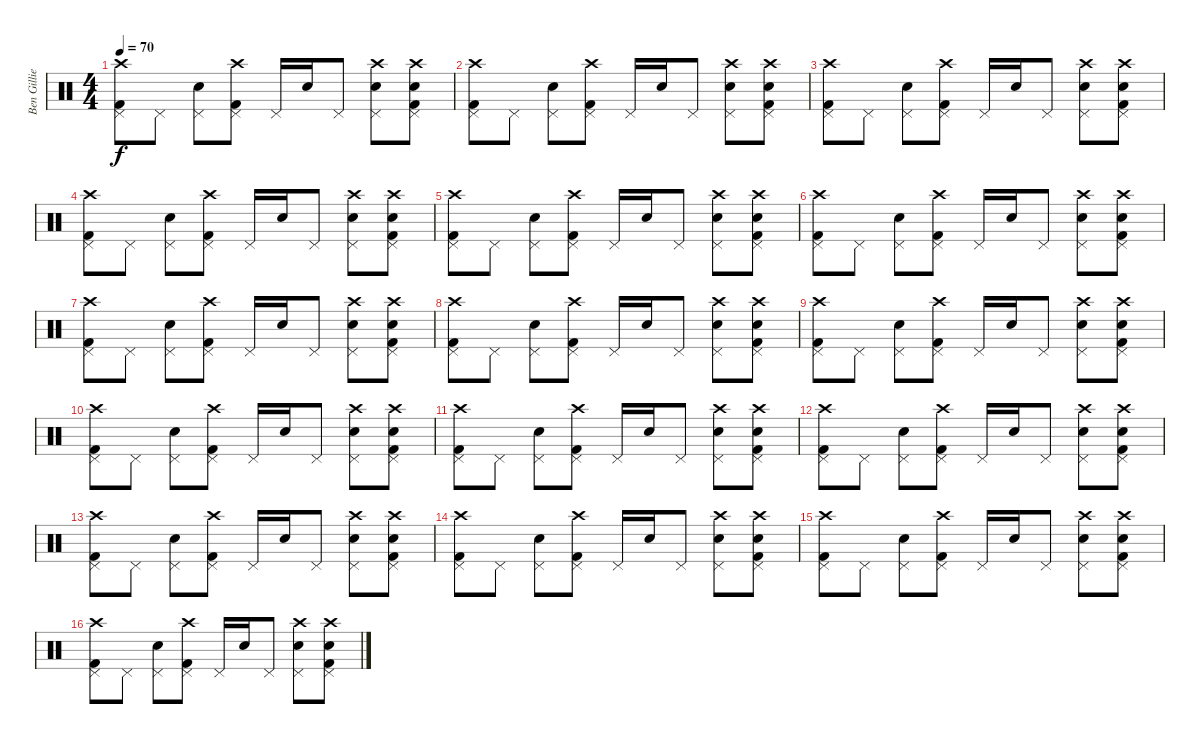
\track ("Ben Gillies" "Ben Gillie") {instrument percussion}
\staff {score}
\articulation defaults
\ts (4 4)
\tempo 70
\clef neutral
\ks c
("Crash high (hit)" "Pedal Hi-Hat (hit)" "Kick (hit) 2").8{dy f} "Pedal Hi-Hat (hit)".8 ("Pedal Hi-Hat (hit)" "Electric Snare (hit)").8 ("Crash high (hit)" "Pedal Hi-Hat (hit)" "Kick (hit) 2").8 "Pedal Hi-Hat (hit)".16 "Electric Snare (hit)".16 "Pedal Hi-Hat (hit)".8 ("Crash high (hit)" "Pedal Hi-Hat (hit)" "Electric Snare (hit)").8 ("Crash high (hit)" "Pedal Hi-Hat (hit)" "Electric Snare (hit)" "Kick (hit) 2").8 |
("Crash high (hit)" "Pedal Hi-Hat (hit)" "Kick (hit) 2").8 "Pedal Hi-Hat (hit)".8 ("Pedal Hi-Hat (hit)" "Electric Snare (hit)").8 ("Crash high (hit)" "Pedal Hi-Hat (hit)" "Kick (hit) 2").8 "Pedal Hi-Hat (hit)".16 "Electric Snare (hit)".16 "Pedal Hi-Hat (hit)".8 ("Crash high (hit)" "Pedal Hi-Hat (hit)" "Electric Snare (hit)").8 ("Crash high (hit)" "Pedal Hi-Hat (hit)" "Electric Snare (hit)" "Kick (hit) 2").8 |
("Crash high (hit)" "Pedal Hi-Hat (hit)" "Kick (hit) 2").8 "Pedal Hi-Hat (hit)".8 ("Pedal Hi-Hat (hit)" "Electric Snare (hit)").8 ("Crash high (hit)" "Pedal Hi-Hat (hit)" "Kick (hit) 2").8 "Pedal Hi-Hat (hit)".16 "Electric Snare (hit)".16 "Pedal Hi-Hat (hit)".8 ("Crash high (hit)" "Pedal Hi-Hat (hit)" "Electric Snare (hit)").8 ("Crash high (hit)" "Pedal Hi-Hat (hit)" "Electric Snare (hit)" "Kick (hit) 2").8 |
("Crash high (hit)" "Pedal Hi-Hat (hit)" "Kick (hit) 2").8 "Pedal Hi-Hat (hit)".8 ("Pedal Hi-Hat (hit)" "Electric Snare (hit)").8 ("Crash high (hit)" "Pedal Hi-Hat (hit)" "Kick (hit) 2").8 "Pedal Hi-Hat (hit)".16 "Electric Snare (hit)".16 "Pedal Hi-Hat (hit)".8 ("Crash high (hit)" "Pedal Hi-Hat (hit)" "Electric Snare (hit)").8 ("Crash high (hit)" "Pedal Hi-Hat (hit)" "Electric Snare (hit)" "Kick (hit) 2").8 |
("Crash high (hit)" "Pedal Hi-Hat (hit)" "Kick (hit) 2").8 "Pedal Hi-Hat (hit)".8 ("Pedal Hi-Hat (hit)" "Electric Snare (hit)").8 ("Crash high (hit)" "Pedal Hi-Hat (hit)" "Kick (hit) 2").8 "Pedal Hi-Hat (hit)".16 "Electric Snare (hit)".16 "Pedal Hi-Hat (hit)".8 ("Crash high (hit)" "Pedal Hi-Hat (hit)" "Electric Snare (hit)").8 ("Crash high (hit)" "Pedal Hi-Hat (hit)" "Electric Snare (hit)" "Kick (hit) 2").8 |
("Crash high (hit)" "Pedal Hi-Hat (hit)" "Kick (hit) 2").8 "Pedal Hi-Hat (hit)".8 ("Pedal Hi-Hat (hit)" "Electric Snare (hit)").8 ("Crash high (hit)" "Pedal Hi-Hat (hit)" "Kick (hit) 2").8 "Pedal Hi-Hat (hit)".16 "Electric Snare (hit)".16 "Pedal Hi-Hat (hit)".8 ("Crash high (hit)" "Pedal Hi-Hat (hit)" "Electric Snare (hit)").8 ("Crash high (hit)" "Pedal Hi-Hat (hit)" "Electric Snare (hit)" "Kick (hit) 2").8 |
("Crash high (hit)" "Pedal Hi-Hat (hit)" "Kick (hit) 2").8 "Pedal Hi-Hat (hit)".8 ("Pedal Hi-Hat (hit)" "Electric Snare (hit)").8 ("Crash high (hit)" "Pedal Hi-Hat (hit)" "Kick (hit) 2").8 "Pedal Hi-Hat (hit)".16 "Electric Snare (hit)".16 "Pedal Hi-Hat (hit)".8 ("Crash high (hit)" "Pedal Hi-Hat (hit)" "Electric Snare (hit)").8 ("Crash high (hit)" "Pedal Hi-Hat (hit)" "Electric Snare (hit)" "Kick (hit) 2").8 |
("Crash high (hit)" "Pedal Hi-Hat (hit)" "Kick (hit) 2").8 "Pedal Hi-Hat (hit)".8 ("Pedal Hi-Hat (hit)" "Electric Snare (hit)").8 ("Crash high (hit)" "Pedal Hi-Hat (hit)" "Kick (hit) 2").8 "Pedal Hi-Hat (hit)".16 "Electric Snare (hit)".16 "Pedal Hi-Hat (hit)".8 ("Crash high (hit)" "Pedal Hi-Hat (hit)" "Electric Snare (hit)").8 ("Crash high (hit)" "Pedal Hi-Hat (hit)" "Electric Snare (hit)" "Kick (hit) 2").8 |
("Crash high (hit)" "Pedal Hi-Hat (hit)" "Kick (hit) 2").8 "Pedal Hi-Hat (hit)".8 ("Pedal Hi-Hat (hit)" "Electric Snare (hit)").8 ("Crash high (hit)" "Pedal Hi-Hat (hit)" "Kick (hit) 2").8 "Pedal Hi-Hat (hit)".16 "Electric Snare (hit)".16 "Pedal Hi-Hat (hit)".8 ("Crash high (hit)" "Pedal Hi-Hat (hit)" "Electric Snare (hit)").8 ("Crash high (hit)" "Pedal Hi-Hat (hit)" "Electric Snare (hit)" "Kick (hit) 2").8 |
("Crash high (hit)" "Pedal Hi-Hat (hit)" "Kick (hit) 2").8 "Pedal Hi-Hat (hit)".8 ("Pedal Hi-Hat (hit)" "Electric Snare (hit)").8 ("Crash high (hit)" "Pedal Hi-Hat (hit)" "Kick (hit) 2").8 "Pedal Hi-Hat (hit)".16 "Electric Snare (hit)".16 "Pedal Hi-Hat (hit)".8 ("Crash high (hit)" "Pedal Hi-Hat (hit)" "Electric Snare (hit)").8 ("Crash high (hit)" "Pedal Hi-Hat (hit)" "Electric Snare (hit)" "Kick (hit) 2").8 |
("Crash high (hit)" "Pedal Hi-Hat (hit)" "Kick (hit) 2").8 "Pedal Hi-Hat (hit)".8 ("Pedal Hi-Hat (hit)" "Electric Snare (hit)").8 ("Crash high (hit)" "Pedal Hi-Hat (hit)" "Kick (hit) 2").8 "Pedal Hi-Hat (hit)".16 "Electric Snare (hit)".16 "Pedal Hi-Hat (hit)".8 ("Crash high (hit)" "Pedal Hi-Hat (hit)" "Electric Snare (hit)").8 ("Crash high (hit)" "Pedal Hi-Hat (hit)" "Electric Snare (hit)" "Kick (hit) 2").8 |
("Crash high (hit)" "Pedal Hi-Hat (hit)" "Kick (hit) 2").8 "Pedal Hi-Hat (hit)".8 ("Pedal Hi-Hat (hit)" "Electric Snare (hit)").8 ("Crash high (hit)" "Pedal Hi-Hat (hit)" "Kick (hit) 2").8 "Pedal Hi-Hat (hit)".16 "Electric Snare (hit)".16 "Pedal Hi-Hat (hit)".8 ("Crash high (hit)" "Pedal Hi-Hat (hit)" "Electric Snare (hit)").8 ("Crash high (hit)" "Pedal Hi-Hat (hit)" "Electric Snare (hit)" "Kick (hit) 2").8 |
("Crash high (hit)" "Pedal Hi-Hat (hit)" "Kick (hit) 2").8 "Pedal Hi-Hat (hit)".8 ("Pedal Hi-Hat (hit)" "Electric Snare (hit)").8 ("Crash high (hit)" "Pedal Hi-Hat (hit)" "Kick (hit) 2").8 "Pedal Hi-Hat (hit)".16 "Electric Snare (hit)".16 "Pedal Hi-Hat (hit)".8 ("Crash high (hit)" "Pedal Hi-Hat (hit)" "Electric Snare (hit)").8 ("Crash high (hit)" "Pedal Hi-Hat (hit)" "Electric Snare (hit)" "Kick (hit) 2").8 |
("Crash high (hit)" "Pedal Hi-Hat (hit)" "Kick (hit) 2").8 "Pedal Hi-Hat (hit)".8 ("Pedal Hi-Hat (hit)" "Electric Snare (hit)").8 ("Crash high (hit)" "Pedal Hi-Hat (hit)" "Kick (hit) 2").8 "Pedal Hi-Hat (hit)".16 "Electric Snare (hit)".16 "Pedal Hi-Hat (hit)".8 ("Crash high (hit)" "Pedal Hi-Hat (hit)" "Electric Snare (hit)").8 ("Crash high (hit)" "Pedal Hi-Hat (hit)" "Electric Snare (hit)" "Kick (hit) 2").8 |
("Crash high (hit)" "Pedal Hi-Hat (hit)" "Kick (hit) 2").8 "Pedal Hi-Hat (hit)".8 ("Pedal Hi-Hat (hit)" "Electric Snare (hit)").8 ("Crash high (hit)" "Pedal Hi-Hat (hit)" "Kick (hit) 2").8 "Pedal Hi-Hat (hit)".16 "Electric Snare (hit)".16 "Pedal Hi-Hat (hit)".8 ("Crash high (hit)" "Pedal Hi-Hat (hit)" "Electric Snare (hit)").8 ("Crash high (hit)" "Pedal Hi-Hat (hit)" "Electric Snare (hit)" "Kick (hit) 2").8 |
("Crash high (hit)" "Pedal Hi-Hat (hit)" "Kick (hit) 2").8 "Pedal Hi-Hat (hit)".8 ("Pedal Hi-Hat (hit)" "Electric Snare (hit)").8 ("Crash high (hit)" "Pedal Hi-Hat (hit)" "Kick (hit) 2").8 "Pedal Hi-Hat (hit)".16 "Electric Snare (hit)".16 "Pedal Hi-Hat (hit)".8 ("Crash high (hit)" "Pedal Hi-Hat (hit)" "Electric Snare (hit)").8 ("Crash high (hit)" "Pedal Hi-Hat (hit)" "Electric Snare (hit)" "Kick (hit) 2").8
